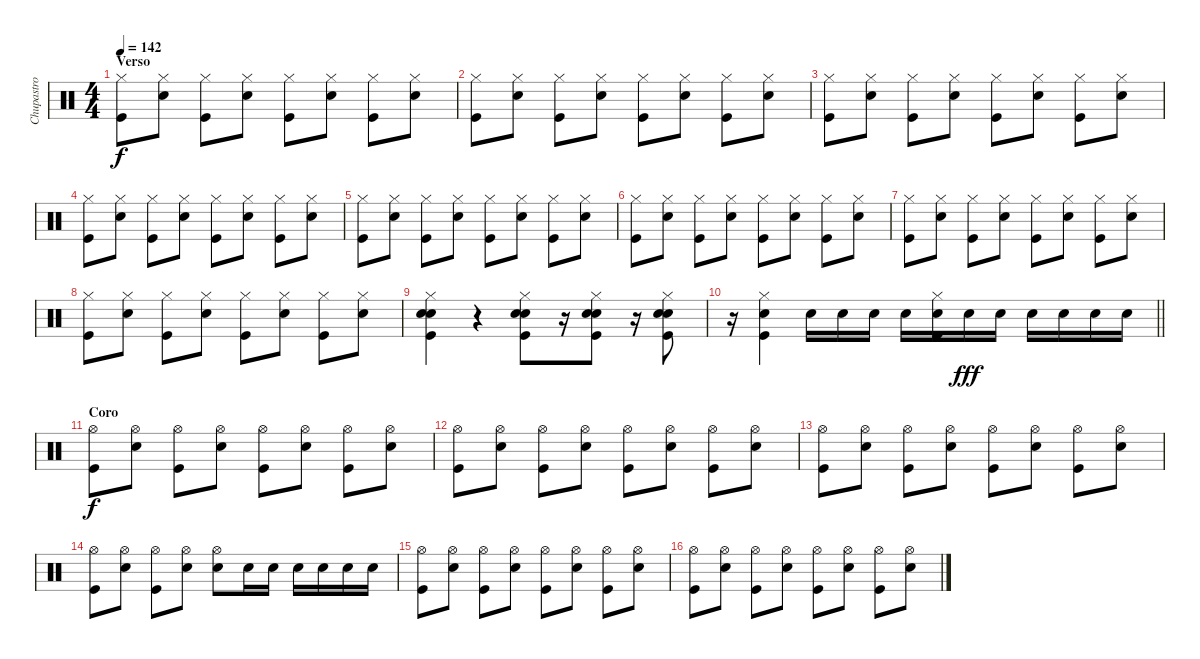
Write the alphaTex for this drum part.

\track ("Chupastro" "Chupastro") {instrument percussion}
\staff {score}
\articulation defaults
\ts (4 4)
\section ("" "Verso")
\tempo 142
\clef neutral
\ks c
("Hi-Hat (closed)" "Kick (hit)").8{dy f} ("Hi-Hat (closed)" "Snare (hit) 2").8 ("Hi-Hat (closed)" "Kick (hit)").8 ("Hi-Hat (closed)" "Snare (hit) 2").8 ("Hi-Hat (closed)" "Kick (hit)").8 ("Hi-Hat (closed)" "Snare (hit) 2").8 ("Hi-Hat (closed)" "Kick (hit)").8 ("Hi-Hat (closed)" "Snare (hit) 2").8 |
("Hi-Hat (closed)" "Kick (hit)").8 ("Hi-Hat (closed)" "Snare (hit) 2").8 ("Hi-Hat (closed)" "Kick (hit)").8 ("Hi-Hat (closed)" "Snare (hit) 2").8 ("Hi-Hat (closed)" "Kick (hit)").8 ("Hi-Hat (closed)" "Snare (hit) 2").8 ("Hi-Hat (closed)" "Kick (hit)").8 ("Hi-Hat (closed)" "Snare (hit) 2").8 |
("Hi-Hat (closed)" "Kick (hit)").8 ("Hi-Hat (closed)" "Snare (hit) 2").8 ("Hi-Hat (closed)" "Kick (hit)").8 ("Hi-Hat (closed)" "Snare (hit) 2").8 ("Hi-Hat (closed)" "Kick (hit)").8 ("Hi-Hat (closed)" "Snare (hit) 2").8 ("Hi-Hat (closed)" "Kick (hit)").8 ("Hi-Hat (closed)" "Snare (hit) 2").8 |
("Hi-Hat (closed)" "Kick (hit)").8 ("Hi-Hat (closed)" "Snare (hit) 2").8 ("Hi-Hat (closed)" "Kick (hit)").8 ("Hi-Hat (closed)" "Snare (hit) 2").8 ("Hi-Hat (closed)" "Kick (hit)").8 ("Hi-Hat (closed)" "Snare (hit) 2").8 ("Hi-Hat (closed)" "Kick (hit)").8 ("Hi-Hat (closed)" "Snare (hit) 2").8 |
("Hi-Hat (closed)" "Kick (hit)").8 ("Hi-Hat (closed)" "Snare (hit) 2").8 ("Hi-Hat (closed)" "Kick (hit)").8 ("Hi-Hat (closed)" "Snare (hit) 2").8 ("Hi-Hat (closed)" "Kick (hit)").8 ("Hi-Hat (closed)" "Snare (hit) 2").8 ("Hi-Hat (closed)" "Kick (hit)").8 ("Hi-Hat (closed)" "Snare (hit) 2").8 |
("Hi-Hat (closed)" "Kick (hit)").8 ("Hi-Hat (closed)" "Snare (hit) 2").8 ("Hi-Hat (closed)" "Kick (hit)").8 ("Hi-Hat (closed)" "Snare (hit) 2").8 ("Hi-Hat (closed)" "Kick (hit)").8 ("Hi-Hat (closed)" "Snare (hit) 2").8 ("Hi-Hat (closed)" "Kick (hit)").8 ("Hi-Hat (closed)" "Snare (hit) 2").8 |
("Hi-Hat (closed)" "Kick (hit)").8 ("Hi-Hat (closed)" "Snare (hit) 2").8 ("Hi-Hat (closed)" "Kick (hit)").8 ("Hi-Hat (closed)" "Snare (hit) 2").8 ("Hi-Hat (closed)" "Kick (hit)").8 ("Hi-Hat (closed)" "Snare (hit) 2").8 ("Hi-Hat (closed)" "Kick (hit)").8 ("Hi-Hat (closed)" "Snare (hit) 2").8 |
("Hi-Hat (closed)" "Kick (hit)").8 ("Hi-Hat (closed)" "Snare (hit) 2").8 ("Hi-Hat (closed)" "Kick (hit)").8 ("Hi-Hat (closed)" "Snare (hit) 2").8 ("Hi-Hat (closed)" "Kick (hit)").8 ("Hi-Hat (closed)" "Snare (hit) 2").8 ("Hi-Hat (closed)" "Kick (hit)").8 ("Hi-Hat (closed)" "Snare (hit) 2").8 |
("Hi-Hat (closed)" "Snare (hit) 2" "Kick (hit)" "Snare (hit) 2").4 r.4 ("Hi-Hat (closed)" "Snare (hit) 2" "Kick (hit)" "Snare (hit) 2").8 r.16 ("Hi-Hat (closed)" "Snare (hit) 2" "Kick (hit)" "Snare (hit) 2").8 r.16 ("Hi-Hat (closed)" "Snare (hit) 2" "Kick (hit)" "Snare (hit) 2").8 |
\barLineRight lightlight
r.16 ("Hi-Hat (closed)" "Snare (hit) 2" "Kick (hit)").4 "Snare (hit) 2".16 "Snare (hit) 2".16 "Snare (hit) 2".16 "Snare (hit) 2".16 ("Hi-Hat (closed)" "Kick (hit)" "Snare (hit) 2").16 "Snare (hit) 2".16{dy fff} "Snare (hit) 2".16 "Snare (hit) 2".16 "Snare (hit) 2".16 "Snare (hit) 2".16 "Snare (hit) 2".16 |
\section ("" "Coro")
("Hi-Hat (open)" "Kick (hit)").8{dy f} ("Hi-Hat (open)" "Snare (hit) 2").8 ("Hi-Hat (open)" "Kick (hit)").8 ("Hi-Hat (open)" "Snare (hit) 2").8 ("Hi-Hat (open)" "Kick (hit)").8 ("Hi-Hat (open)" "Snare (hit) 2").8 ("Hi-Hat (open)" "Kick (hit)").8 ("Hi-Hat (open)" "Snare (hit) 2").8 |
("Hi-Hat (open)" "Kick (hit)").8 ("Hi-Hat (open)" "Snare (hit) 2").8 ("Hi-Hat (open)" "Kick (hit)").8 ("Hi-Hat (open)" "Snare (hit) 2").8 ("Hi-Hat (open)" "Kick (hit)").8 ("Hi-Hat (open)" "Snare (hit) 2").8 ("Hi-Hat (open)" "Kick (hit)").8 ("Hi-Hat (open)" "Snare (hit) 2").8 |
("Hi-Hat (open)" "Kick (hit)").8 ("Hi-Hat (open)" "Snare (hit) 2").8 ("Hi-Hat (open)" "Kick (hit)").8 ("Hi-Hat (open)" "Snare (hit) 2").8 ("Hi-Hat (open)" "Kick (hit)").8 ("Hi-Hat (open)" "Snare (hit) 2").8 ("Hi-Hat (open)" "Kick (hit)").8 ("Hi-Hat (open)" "Snare (hit) 2").8 |
("Hi-Hat (open)" "Kick (hit)").8 ("Hi-Hat (open)" "Snare (hit) 2").8 ("Hi-Hat (open)" "Kick (hit)").8 ("Hi-Hat (open)" "Snare (hit) 2").8 ("Hi-Hat (open)" "Snare (hit) 2").8 "Snare (hit) 2".16 "Snare (hit) 2".16 "Snare (hit) 2".16 "Snare (hit) 2".16 "Snare (hit) 2".16 "Snare (hit) 2".16 |
("Hi-Hat (open)" "Kick (hit)").8 ("Hi-Hat (open)" "Snare (hit) 2").8 ("Hi-Hat (open)" "Kick (hit)").8 ("Hi-Hat (open)" "Snare (hit) 2").8 ("Hi-Hat (open)" "Kick (hit)").8 ("Hi-Hat (open)" "Snare (hit) 2").8 ("Hi-Hat (open)" "Kick (hit)").8 ("Hi-Hat (open)" "Snare (hit) 2").8 |
("Hi-Hat (open)" "Kick (hit)").8 ("Hi-Hat (open)" "Snare (hit) 2").8 ("Hi-Hat (open)" "Kick (hit)").8 ("Hi-Hat (open)" "Snare (hit) 2").8 ("Hi-Hat (open)" "Kick (hit)").8 ("Hi-Hat (open)" "Snare (hit) 2").8 ("Hi-Hat (open)" "Kick (hit)").8 ("Hi-Hat (open)" "Snare (hit) 2").8
